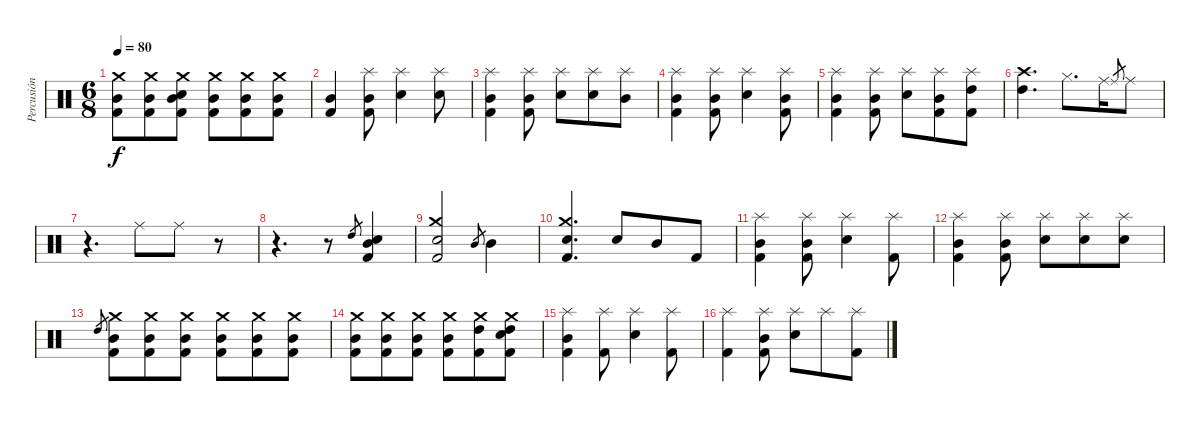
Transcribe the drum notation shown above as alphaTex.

\track ("Percusión" "Percusión") {instrument percussion}
\staff {score}
\articulation defaults
\ts (6 8)
\tempo 80
\clef neutral
\ks c
("Kick (hit) 2" "Mid Tom (hit)" "Crash medium (hit)").8{dy f} ("Kick (hit) 2" "Mid Tom (hit)" "Crash medium (hit)").8 ("Kick (hit) 2" "Mid Tom (hit)" "Snare (hit) 2" "Crash medium (hit)").8 ("Kick (hit) 2" "Mid Tom (hit)" "Crash medium (hit)").8 ("Kick (hit) 2" "Mid Tom (hit)" "Crash medium (hit)").8 ("Kick (hit) 2" "Mid Tom (hit)" "Crash medium (hit)").8 |
("Kick (hit) 2" "Mid Tom (hit)").4 ("Kick (hit) 2" "Mid Tom (hit)" "Splash (hit)").8 ("Snare (hit) 2" "Splash (hit)").4 ("Snare (hit) 2" "Splash (hit)").8 |
("Kick (hit) 2" "Mid Tom (hit)" "Splash (hit)").4 ("Kick (hit) 2" "Mid Tom (hit)" "Splash (hit)").8 ("Snare (hit) 2" "Splash (hit)").8 ("Snare (hit) 2" "Splash (hit)").8 ("Mid Tom (hit)" "Splash (hit)").8 |
("Kick (hit) 2" "Mid Tom (hit)" "Splash (hit)").4 ("Kick (hit) 2" "Mid Tom (hit)" "Splash (hit)").8 ("Snare (hit) 2" "Splash (hit)").4 ("Kick (hit) 2" "Mid Tom (hit)" "Splash (hit)").8 |
("Kick (hit) 2" "Mid Tom (hit)" "Splash (hit)").4 ("Kick (hit) 2" "Mid Tom (hit)" "Splash (hit)").8 ("Snare (hit) 2" "Splash (hit)").8 ("Kick (hit) 2" "Mid Tom (hit)" "Splash (hit)").8 ("Kick (hit) 2" "High Tom (hit)" "Splash (hit)").8 |
("High Tom (hit)" "Crash high (hit)").4{d} "Hi-Hat (closed)".8{d} "Ride (middle)".16 "Ride (middle)".8{gr} "Ride (middle)".8 |
r.4{d} "Ride (middle)".8 "Ride (middle)".8 r.8 |
r.4{d} r.8 "High Tom (hit)".8{gr} ("Snare (hit) 2" "Kick (hit) 2" "Mid Tom (hit)").4 |
("Snare (hit) 2" "Crash medium (hit)" "Kick (hit) 2").2 "Mid Tom (hit)".8{gr} "Mid Tom (hit)".4 |
("Snare (hit) 2" "Crash medium (hit)" "Kick (hit) 2").4{d} "Snare (hit) 2".8 "Mid Tom (hit)".8 "Kick (hit) 2".8 |
("Kick (hit) 2" "Mid Tom (hit)" "Splash (hit)").4 ("Kick (hit) 2" "Mid Tom (hit)" "Splash (hit)").8 ("Snare (hit) 2" "Splash (hit)").4 ("Kick (hit) 2" "Splash (hit)").8 |
("Kick (hit) 2" "Mid Tom (hit)" "Splash (hit)").4 ("Kick (hit) 2" "Mid Tom (hit)" "Splash (hit)").8 ("Snare (hit) 2" "Splash (hit)").8 ("Snare (hit) 2" "Splash (hit)").8 ("Snare (hit) 2" "Splash (hit)").8 |
"High Tom (hit)".8{gr} ("Kick (hit) 2" "Mid Tom (hit)" "Crash medium (hit)").8 ("Kick (hit) 2" "Mid Tom (hit)" "Crash medium (hit)").8 ("Kick (hit) 2" "Mid Tom (hit)" "Crash medium (hit)").8 ("Kick (hit) 2" "Mid Tom (hit)" "Crash medium (hit)").8 ("Kick (hit) 2" "Mid Tom (hit)" "Crash medium (hit)").8 ("Kick (hit) 2" "Mid Tom (hit)" "Crash medium (hit)").8 |
("Kick (hit) 2" "Mid Tom (hit)" "Crash medium (hit)").8 ("Kick (hit) 2" "Mid Tom (hit)" "Crash medium (hit)").8 ("Kick (hit) 2" "Mid Tom (hit)" "Crash medium (hit)").8 ("Kick (hit) 2" "Mid Tom (hit)" "Crash medium (hit)").8 ("Kick (hit) 2" "High Tom (hit)" "Crash medium (hit)").8 ("Kick (hit) 2" "High Tom (hit)" "Snare (hit) 2" "Crash medium (hit)").8 |
("Kick (hit) 2" "Mid Tom (hit)" "Splash (hit)").4 ("Kick (hit) 2" "Splash (hit)").8 ("Snare (hit) 2" "Splash (hit)").4 ("Kick (hit) 2" "Splash (hit)").8 |
("Kick (hit) 2" "Splash (hit)").4 ("Kick (hit) 2" "Mid Tom (hit)" "Splash (hit)").8 ("Snare (hit) 2" "Splash (hit)").8 "Splash (hit)".8 ("Kick (hit) 2" "Splash (hit)").8
